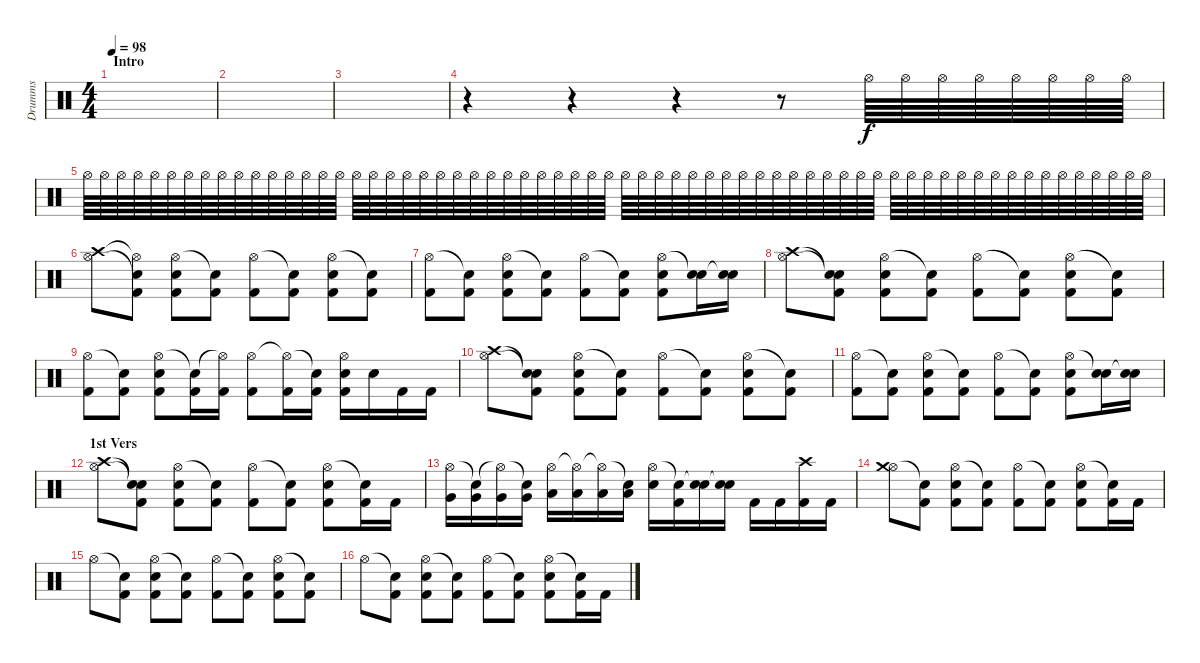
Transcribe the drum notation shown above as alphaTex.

\track ("Drumms" "Drumms") {instrument percussion}
\staff {score}
\articulation defaults
\ts (4 4)
\section ("" "Intro")
\tempo 98
\clef neutral
\ks c
|
|
|
r.4{volume 5} r.4 r.4 r.8 "Hi-Hat (open)".64 "Hi-Hat (open)".64 "Hi-Hat (open)".64 "Hi-Hat (open)".64 "Hi-Hat (open)".64 "Hi-Hat (open)".64 "Hi-Hat (open)".64 "Hi-Hat (open)".64 |
"Hi-Hat (open)".64{volume 6} "Hi-Hat (open)".64 "Hi-Hat (open)".64 "Hi-Hat (open)".64 "Hi-Hat (open)".64 "Hi-Hat (open)".64 "Hi-Hat (open)".64 "Hi-Hat (open)".64 "Hi-Hat (open)".64 "Hi-Hat (open)".64 "Hi-Hat (open)".64 "Hi-Hat (open)".64 "Hi-Hat (open)".64 "Hi-Hat (open)".64 "Hi-Hat (open)".64 "Hi-Hat (open)".64 "Hi-Hat (open)".64{volume 8} "Hi-Hat (open)".64 "Hi-Hat (open)".64 "Hi-Hat (open)".64 "Hi-Hat (open)".64 "Hi-Hat (open)".64 "Hi-Hat (open)".64 "Hi-Hat (open)".64 "Hi-Hat (open)".64 "Hi-Hat (open)".64 "Hi-Hat (open)".64 "Hi-Hat (open)".64 "Hi-Hat (open)".64 "Hi-Hat (open)".64 "Hi-Hat (open)".64 "Hi-Hat (open)".64 "Hi-Hat (open)".64{volume 9} "Hi-Hat (open)".64 "Hi-Hat (open)".64 "Hi-Hat (open)".64 "Hi-Hat (open)".64 "Hi-Hat (open)".64 "Hi-Hat (open)".64 "Hi-Hat (open)".64 "Hi-Hat (open)".64 "Hi-Hat (open)".64 "Hi-Hat (open)".64 "Hi-Hat (open)".64 "Hi-Hat (open)".64 "Hi-Hat (open)".64 "Hi-Hat (open)".64 "Hi-Hat (open)".64 "Hi-Hat (open)".64{volume 10} "Hi-Hat (open)".64 "Hi-Hat (open)".64 "Hi-Hat (open)".64 "Hi-Hat (open)".64 "Hi-Hat (open)".64 "Hi-Hat (open)".64 "Hi-Hat (open)".64 "Hi-Hat (open)".64 "Hi-Hat (open)".64 "Hi-Hat (open)".64 "Hi-Hat (open)".64 "Hi-Hat (open)".64 "Hi-Hat (open)".64 "Hi-Hat (open)".64 "Hi-Hat (open)".64 |
("Hi-Hat (open)" "Crash high (hit)").8{volume 13} ("Snare (hit)"{t} "Hi-Hat (open)"{t} "Kick (hit) 2").8 ("Hi-Hat (open)" "Electric Snare (hit)" "Kick (hit) 2").8 ("Snare (hit)"{t} "Kick (hit) 2").8 ("Hi-Hat (open)" "Kick (hit) 2").8 ("Snare (hit)"{t} "Kick (hit) 2").8 ("Hi-Hat (open)" "Electric Snare (hit)" "Kick (hit) 2").8 ("Snare (hit)"{t} "Kick (hit) 2").8 |
("Hi-Hat (open)" "Kick (hit) 2").8{volume 13} ("Snare (hit)"{t} "Kick (hit) 2").8 ("Hi-Hat (open)" "Electric Snare (hit)" "Kick (hit) 2").8 ("Snare (hit)"{t} "Kick (hit) 2").8 ("Hi-Hat (open)" "Kick (hit) 2").8 ("Snare (hit)"{t} "Kick (hit) 2").8 ("Hi-Hat (open)" "Electric Snare (hit)" "Kick (hit) 2").8 ("Snare (hit)"{t} "Electric Snare (hit)").16 ("Snare (hit)"{t} "Electric Snare (hit)").16 |
("Hi-Hat (open)" "Crash high (hit)").8 ("Snare (hit)"{t} "Snare (hit)"{t} "Kick (hit) 2").8 ("Hi-Hat (open)" "Electric Snare (hit)" "Kick (hit) 2").8 ("Snare (hit)"{t} "Kick (hit) 2").8 ("Hi-Hat (open)" "Kick (hit) 2").8 ("Snare (hit)"{t} "Kick (hit) 2").8 ("Hi-Hat (open)" "Electric Snare (hit)" "Kick (hit) 2").8 ("Snare (hit)"{t} "Kick (hit) 2").8 |
("Hi-Hat (open)" "Kick (hit) 2").8{volume 13} ("Snare (hit)"{t} "Kick (hit) 2").8 ("Hi-Hat (open)" "Electric Snare (hit)" "Kick (hit) 2").8 ("Snare (hit)"{t} "Kick (hit) 2").16 ("Hi-Hat (open)"{t} "Kick (hit) 2").16 ("Hi-Hat (open)" "Kick (hit) 2").8 ("Hi-Hat (open)"{t} "Kick (hit) 2").16 ("Snare (hit)"{t} "Kick (hit) 2").16 ("Hi-Hat (open)" "Electric Snare (hit)" "Kick (hit) 2").16 "Electric Snare (hit)".16 "Kick (hit) 2".16 "Kick (hit) 2".16 |
("Hi-Hat (open)" "Crash high (hit)").8 ("Snare (hit)"{t} "Snare (hit)"{t} "Kick (hit) 2").8 ("Hi-Hat (open)" "Electric Snare (hit)" "Kick (hit) 2").8 ("Snare (hit)"{t} "Kick (hit) 2").8 ("Hi-Hat (open)" "Kick (hit) 2").8 ("Snare (hit)"{t} "Kick (hit) 2").8 ("Hi-Hat (open)" "Electric Snare (hit)" "Kick (hit) 2").8 ("Snare (hit)"{t} "Kick (hit) 2").8 |
("Hi-Hat (open)" "Kick (hit) 2").8{volume 13} ("Snare (hit)"{t} "Kick (hit) 2").8 ("Hi-Hat (open)" "Electric Snare (hit)" "Kick (hit) 2").8 ("Snare (hit)"{t} "Kick (hit) 2").8 ("Hi-Hat (open)" "Kick (hit) 2").8 ("Snare (hit)"{t} "Kick (hit) 2").8 ("Hi-Hat (open)" "Electric Snare (hit)" "Kick (hit) 2").8 ("Snare (hit)"{t} "Electric Snare (hit)").16 ("Snare (hit)"{t} "Electric Snare (hit)").16 |
\section ("" "1st Vers")
("Hi-Hat (open)" "Crash high (hit)").8 ("Snare (hit)"{t} "Snare (hit)"{t} "Kick (hit) 2").8 ("Hi-Hat (open)" "Electric Snare (hit)" "Kick (hit) 2").8 ("Snare (hit)"{t} "Kick (hit) 2").8 ("Hi-Hat (open)" "Kick (hit) 2").8 ("Snare (hit)"{t} "Kick (hit) 2").8 ("Hi-Hat (open)" "Electric Snare (hit)" "Kick (hit) 2").8 ("Snare (hit)"{t} "Kick (hit) 2").16 "Kick (hit) 2".16 |
("Hi-Hat (open)" "Very Low Tom (hit)").16{volume 13} ("Snare (hit)"{t} "Very Low Tom (hit)").16 ("Hi-Hat (open)"{t} "Very Low Tom (hit)").16 ("Snare (hit)"{t} "Very Low Tom (hit)").16 ("Hi-Hat (open)" "Low Tom (hit)").16 ("Hi-Hat (open)"{t} "Low Tom (hit)").16 ("Hi-Hat (open)"{t} "Low Tom (hit)").16 ("Snare (hit)"{t} "Low Tom (hit)").16 ("Hi-Hat (open)" "Electric Snare (hit)").16 ("Snare (hit)"{t} "Kick (hit) 2").16 ("Snare (hit)"{t} "Snare (hit) 2").16 ("Snare (hit)"{t} "Snare (hit) 2").16 "Kick (hit) 2".16 "Kick (hit) 2".16 ("Crash high (hit)" "Kick (hit) 2").16 "Kick (hit) 2".16 |
("Hi-Hat (open)" "Crash medium (hit)").8 ("Snare (hit)"{t} "Kick (hit) 2").8 ("Hi-Hat (open)" "Electric Snare (hit)" "Kick (hit) 2").8 ("Snare (hit)"{t} "Kick (hit) 2").8 ("Hi-Hat (open)" "Kick (hit) 2").8 ("Snare (hit)"{t} "Kick (hit) 2").8 ("Hi-Hat (open)" "Electric Snare (hit)" "Kick (hit) 2").8 ("Snare (hit)"{t} "Kick (hit) 2").16 "Kick (hit) 2".16 |
"Hi-Hat (open)".8{volume 13} ("Snare (hit)"{t} "Kick (hit) 2").8 ("Hi-Hat (open)" "Electric Snare (hit)" "Kick (hit) 2").8 ("Snare (hit)"{t} "Kick (hit) 2").8 ("Hi-Hat (open)" "Kick (hit) 2").8 ("Snare (hit)"{t} "Kick (hit) 2").8 ("Hi-Hat (open)" "Electric Snare (hit)" "Kick (hit) 2").8 ("Snare (hit)"{t} "Kick (hit) 2").8 |
"Hi-Hat (open)".8 ("Snare (hit)"{t} "Kick (hit) 2").8 ("Hi-Hat (open)" "Electric Snare (hit)" "Kick (hit) 2").8 ("Snare (hit)"{t} "Kick (hit) 2").8 ("Hi-Hat (open)" "Kick (hit) 2").8 ("Snare (hit)"{t} "Kick (hit) 2").8 ("Hi-Hat (open)" "Electric Snare (hit)" "Kick (hit) 2").8 ("Snare (hit)"{t} "Kick (hit) 2").16 "Kick (hit) 2".16
